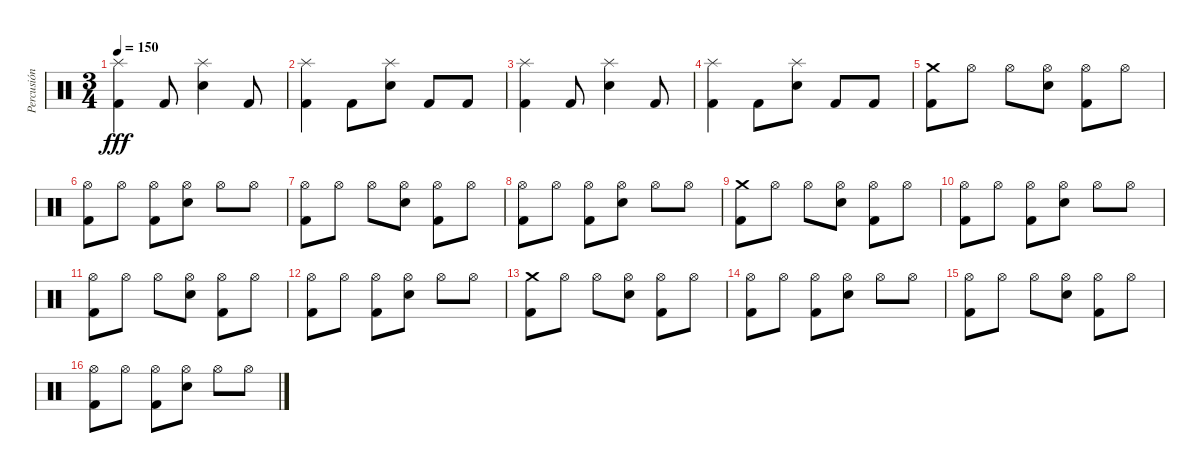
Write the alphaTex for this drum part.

\track ("Percusión" "Percusión") {instrument percussion}
\staff {score}
\articulation defaults
\ts (3 4)
\tempo 150
\clef neutral
\ks c
("Splash (hit)" "Kick (hit) 2").4{dy fff} "Kick (hit) 2".8 ("Splash (hit)" "Snare (hit) 2").4 "Kick (hit) 2".8 |
("Splash (hit)" "Kick (hit) 2").4 "Kick (hit) 2".8 ("Splash (hit)" "Snare (hit) 2").8 "Kick (hit) 2".8 "Kick (hit) 2".8 |
("Splash (hit)" "Kick (hit) 2").4 "Kick (hit) 2".8 ("Splash (hit)" "Snare (hit) 2").4 "Kick (hit) 2".8 |
("Splash (hit)" "Kick (hit) 2").4 "Kick (hit) 2".8 ("Splash (hit)" "Snare (hit) 2").8 "Kick (hit) 2".8 "Kick (hit) 2".8 |
("Crash medium (hit)" "Kick (hit) 2").8 "Hi-Hat (open)".8 "Hi-Hat (open)".8 ("Hi-Hat (open)" "Snare (hit) 2").8 ("Hi-Hat (open)" "Kick (hit) 2").8 "Hi-Hat (open)".8 |
("Hi-Hat (open)" "Kick (hit) 2").8 "Hi-Hat (open)".8 ("Hi-Hat (open)" "Kick (hit) 2").8 ("Hi-Hat (open)" "Snare (hit) 2").8 "Hi-Hat (open)".8 "Hi-Hat (open)".8 |
("Hi-Hat (open)" "Kick (hit) 2").8 "Hi-Hat (open)".8 "Hi-Hat (open)".8 ("Hi-Hat (open)" "Snare (hit) 2").8 ("Hi-Hat (open)" "Kick (hit) 2").8 "Hi-Hat (open)".8 |
("Hi-Hat (open)" "Kick (hit) 2").8 "Hi-Hat (open)".8 ("Hi-Hat (open)" "Kick (hit) 2").8 ("Hi-Hat (open)" "Snare (hit) 2").8 "Hi-Hat (open)".8 "Hi-Hat (open)".8 |
("Crash medium (hit)" "Kick (hit) 2").8 "Hi-Hat (open)".8 "Hi-Hat (open)".8 ("Hi-Hat (open)" "Snare (hit) 2").8 ("Hi-Hat (open)" "Kick (hit) 2").8 "Hi-Hat (open)".8 |
("Hi-Hat (open)" "Kick (hit) 2").8 "Hi-Hat (open)".8 ("Hi-Hat (open)" "Kick (hit) 2").8 ("Hi-Hat (open)" "Snare (hit) 2").8 "Hi-Hat (open)".8 "Hi-Hat (open)".8 |
("Hi-Hat (open)" "Kick (hit) 2").8 "Hi-Hat (open)".8 "Hi-Hat (open)".8 ("Hi-Hat (open)" "Snare (hit) 2").8 ("Hi-Hat (open)" "Kick (hit) 2").8 "Hi-Hat (open)".8 |
("Hi-Hat (open)" "Kick (hit) 2").8 "Hi-Hat (open)".8 ("Hi-Hat (open)" "Kick (hit) 2").8 ("Hi-Hat (open)" "Snare (hit) 2").8 "Hi-Hat (open)".8 "Hi-Hat (open)".8 |
("Crash medium (hit)" "Kick (hit) 2").8 "Hi-Hat (open)".8 "Hi-Hat (open)".8 ("Hi-Hat (open)" "Snare (hit) 2").8 ("Hi-Hat (open)" "Kick (hit) 2").8 "Hi-Hat (open)".8 |
("Hi-Hat (open)" "Kick (hit) 2").8 "Hi-Hat (open)".8 ("Hi-Hat (open)" "Kick (hit) 2").8 ("Hi-Hat (open)" "Snare (hit) 2").8 "Hi-Hat (open)".8 "Hi-Hat (open)".8 |
("Hi-Hat (open)" "Kick (hit) 2").8 "Hi-Hat (open)".8 "Hi-Hat (open)".8 ("Hi-Hat (open)" "Snare (hit) 2").8 ("Hi-Hat (open)" "Kick (hit) 2").8 "Hi-Hat (open)".8 |
("Hi-Hat (open)" "Kick (hit) 2").8 "Hi-Hat (open)".8 ("Hi-Hat (open)" "Kick (hit) 2").8 ("Hi-Hat (open)" "Snare (hit) 2").8 "Hi-Hat (open)".8 "Hi-Hat (open)".8
